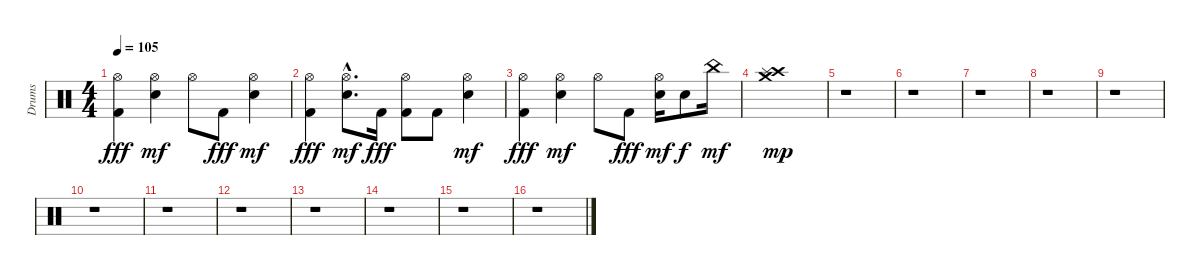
\track ("Drums" "Drums") {instrument percussion}
\staff {score}
\articulation defaults
\ts (4 4)
\tempo 105
\clef neutral
\ks c
("Hi-Hat (open)" "Kick (hit) 2").4{dy fff} ("Hi-Hat (open)" "Electric Snare (hit)").4{dy mf} "Hi-Hat (open)".8 "Kick (hit) 2".8{dy fff} ("Hi-Hat (open)" "Electric Snare (hit)").4{dy mf} |
("Hi-Hat (open)" "Kick (hit) 2").4{dy fff} ("Hi-Hat (open)"{hac} "Electric Snare (hit)"{hac}).8{d dy mf} "Kick (hit) 2".16{dy fff} ("Hi-Hat (open)" "Kick (hit) 2").8 "Kick (hit) 2".8 ("Hi-Hat (open)" "Electric Snare (hit)").4{dy mf} |
("Hi-Hat (open)" "Kick (hit) 2").4{dy fff} ("Hi-Hat (open)" "Electric Snare (hit)").4{dy mf} "Hi-Hat (open)".8 "Kick (hit) 2".8{dy fff} ("Hi-Hat (open)" "Electric Snare (hit)").16{dy mf} "Electric Snare (hit)".8{dy f} "China (hit)".16{dy mf} |
("Crash medium (hit)" "Crash high (hit)" "Splash (hit)").1{bu 480 dy mp} |
r.1 |
r.1 |
r.1 |
r.1 |
r.1 |
r.1 |
r.1 |
r.1 |
r.1 |
r.1 |
r.1 |
r.1
